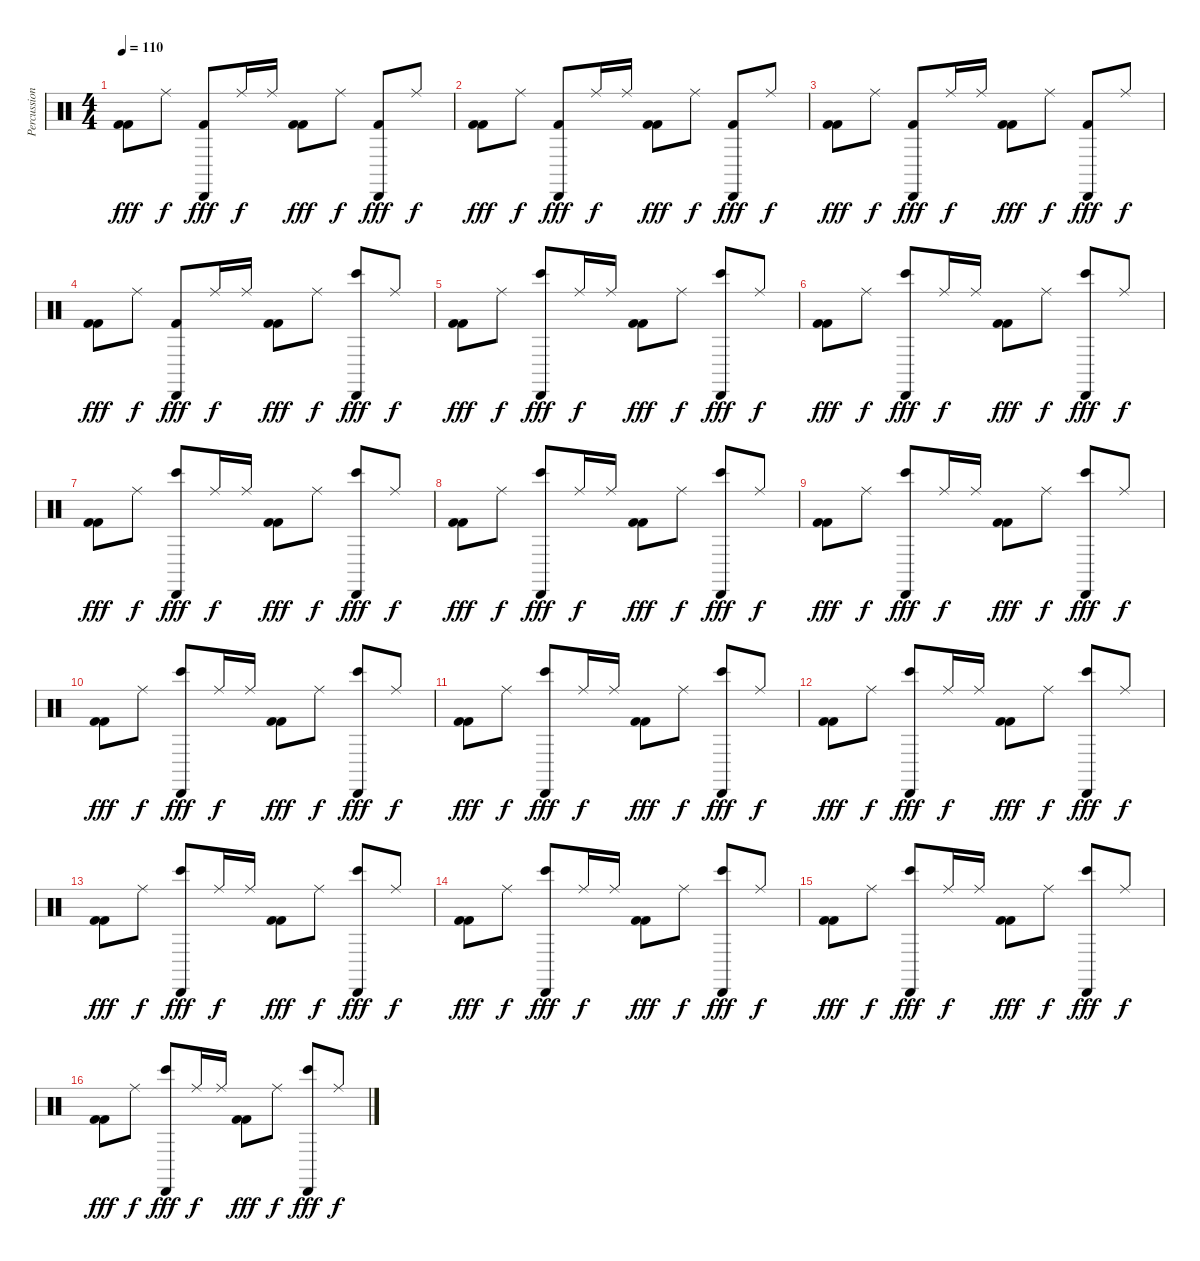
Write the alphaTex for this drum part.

\track ("Percussion" "Percussion") {instrument percussion}
\staff {score}
\articulation defaults
\ts (4 4)
\tempo 110
\clef neutral
\ks c
("Kick (hit) 2" "Kick (hit) 2").8{dy fff} "Ride (middle)".8{dy f} ("Kick (hit) 2" "Cabasa (hit)").8{dy fff} "Ride (middle)".16{dy f} "Ride (middle)".16 ("Kick (hit) 2" "Kick (hit) 2").8{dy fff} "Ride (middle)".8{dy f} ("Kick (hit) 2" "Cabasa (hit)").8{dy fff} "Ride (middle)".8{dy f} |
("Kick (hit) 2" "Kick (hit) 2").8{dy fff} "Ride (middle)".8{dy f} ("Kick (hit) 2" "Cabasa (hit)").8{dy fff} "Ride (middle)".16{dy f} "Ride (middle)".16 ("Kick (hit) 2" "Kick (hit) 2").8{dy fff} "Ride (middle)".8{dy f} ("Kick (hit) 2" "Cabasa (hit)").8{dy fff} "Ride (middle)".8{dy f} |
("Kick (hit) 2" "Kick (hit) 2").8{dy fff} "Ride (middle)".8{dy f} ("Kick (hit) 2" "Cabasa (hit)").8{dy fff} "Ride (middle)".16{dy f} "Ride (middle)".16 ("Kick (hit) 2" "Kick (hit) 2").8{dy fff} "Ride (middle)".8{dy f} ("Kick (hit) 2" "Cabasa (hit)").8{dy fff} "Ride (middle)".8{dy f} |
("Kick (hit) 2" "Kick (hit) 2").8{dy fff} "Ride (middle)".8{dy f} ("Kick (hit) 2" "Cabasa (hit)").8{dy fff} "Ride (middle)".16{dy f} "Ride (middle)".16 ("Kick (hit) 2" "Kick (hit) 2").8{dy fff} "Ride (middle)".8{dy f} ("Bongo High (hit)" "Cabasa (hit)").8{dy fff} "Ride (middle)".8{dy f} |
("Kick (hit) 2" "Kick (hit) 2").8{dy fff} "Ride (middle)".8{dy f} ("Bongo High (hit)" "Cabasa (hit)").8{dy fff} "Ride (middle)".16{dy f} "Ride (middle)".16 ("Kick (hit) 2" "Kick (hit) 2").8{dy fff} "Ride (middle)".8{dy f} ("Bongo High (hit)" "Cabasa (hit)").8{dy fff} "Ride (middle)".8{dy f} |
("Kick (hit) 2" "Kick (hit) 2").8{dy fff} "Ride (middle)".8{dy f} ("Bongo High (hit)" "Cabasa (hit)").8{dy fff} "Ride (middle)".16{dy f} "Ride (middle)".16 ("Kick (hit) 2" "Kick (hit) 2").8{dy fff} "Ride (middle)".8{dy f} ("Bongo High (hit)" "Cabasa (hit)").8{dy fff} "Ride (middle)".8{dy f} |
("Kick (hit) 2" "Kick (hit) 2").8{dy fff} "Ride (middle)".8{dy f} ("Bongo High (hit)" "Cabasa (hit)").8{dy fff} "Ride (middle)".16{dy f} "Ride (middle)".16 ("Kick (hit) 2" "Kick (hit) 2").8{dy fff} "Ride (middle)".8{dy f} ("Bongo High (hit)" "Cabasa (hit)").8{dy fff} "Ride (middle)".8{dy f} |
("Kick (hit) 2" "Kick (hit) 2").8{dy fff} "Ride (middle)".8{dy f} ("Bongo High (hit)" "Cabasa (hit)").8{dy fff} "Ride (middle)".16{dy f} "Ride (middle)".16 ("Kick (hit) 2" "Kick (hit) 2").8{dy fff} "Ride (middle)".8{dy f} ("Bongo High (hit)" "Cabasa (hit)").8{dy fff} "Ride (middle)".8{dy f} |
("Kick (hit) 2" "Kick (hit) 2").8{dy fff} "Ride (middle)".8{dy f} ("Bongo High (hit)" "Cabasa (hit)").8{dy fff} "Ride (middle)".16{dy f} "Ride (middle)".16 ("Kick (hit) 2" "Kick (hit) 2").8{dy fff} "Ride (middle)".8{dy f} ("Bongo High (hit)" "Cabasa (hit)").8{dy fff} "Ride (middle)".8{dy f} |
("Kick (hit) 2" "Kick (hit) 2").8{dy fff} "Ride (middle)".8{dy f} ("Bongo High (hit)" "Cabasa (hit)").8{dy fff} "Ride (middle)".16{dy f} "Ride (middle)".16 ("Kick (hit) 2" "Kick (hit) 2").8{dy fff} "Ride (middle)".8{dy f} ("Bongo High (hit)" "Cabasa (hit)").8{dy fff} "Ride (middle)".8{dy f} |
("Kick (hit) 2" "Kick (hit) 2").8{dy fff} "Ride (middle)".8{dy f} ("Bongo High (hit)" "Cabasa (hit)").8{dy fff} "Ride (middle)".16{dy f} "Ride (middle)".16 ("Kick (hit) 2" "Kick (hit) 2").8{dy fff} "Ride (middle)".8{dy f} ("Bongo High (hit)" "Cabasa (hit)").8{dy fff} "Ride (middle)".8{dy f} |
("Kick (hit) 2" "Kick (hit) 2").8{dy fff} "Ride (middle)".8{dy f} ("Bongo High (hit)" "Cabasa (hit)").8{dy fff} "Ride (middle)".16{dy f} "Ride (middle)".16 ("Kick (hit) 2" "Kick (hit) 2").8{dy fff} "Ride (middle)".8{dy f} ("Bongo High (hit)" "Cabasa (hit)").8{dy fff} "Ride (middle)".8{dy f} |
("Kick (hit) 2" "Kick (hit) 2").8{dy fff} "Ride (middle)".8{dy f} ("Bongo High (hit)" "Cabasa (hit)").8{dy fff} "Ride (middle)".16{dy f} "Ride (middle)".16 ("Kick (hit) 2" "Kick (hit) 2").8{dy fff} "Ride (middle)".8{dy f} ("Bongo High (hit)" "Cabasa (hit)").8{dy fff} "Ride (middle)".8{dy f} |
("Kick (hit) 2" "Kick (hit) 2").8{dy fff} "Ride (middle)".8{dy f} ("Bongo High (hit)" "Cabasa (hit)").8{dy fff} "Ride (middle)".16{dy f} "Ride (middle)".16 ("Kick (hit) 2" "Kick (hit) 2").8{dy fff} "Ride (middle)".8{dy f} ("Bongo High (hit)" "Cabasa (hit)").8{dy fff} "Ride (middle)".8{dy f} |
("Kick (hit) 2" "Kick (hit) 2").8{dy fff} "Ride (middle)".8{dy f} ("Bongo High (hit)" "Cabasa (hit)").8{dy fff} "Ride (middle)".16{dy f} "Ride (middle)".16 ("Kick (hit) 2" "Kick (hit) 2").8{dy fff} "Ride (middle)".8{dy f} ("Bongo High (hit)" "Cabasa (hit)").8{dy fff} "Ride (middle)".8{dy f} |
("Kick (hit) 2" "Kick (hit) 2").8{dy fff} "Ride (middle)".8{dy f} ("Bongo High (hit)" "Cabasa (hit)").8{dy fff} "Ride (middle)".16{dy f} "Ride (middle)".16 ("Kick (hit) 2" "Kick (hit) 2").8{dy fff} "Ride (middle)".8{dy f} ("Bongo High (hit)" "Cabasa (hit)").8{dy fff} "Ride (middle)".8{dy f}
